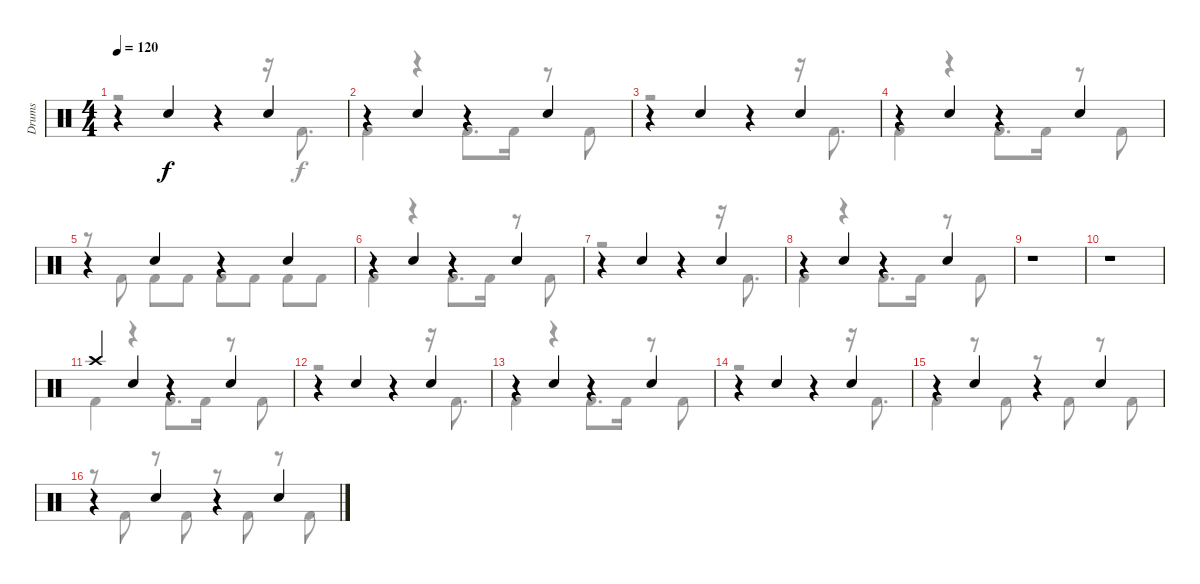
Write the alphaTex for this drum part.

\track ("Drums" "Drums") {instrument percussion}
\staff {score}
\articulation defaults
\voice
\ts (4 4)
\tempo 120
\clef neutral
\ks c
r.4{dy f} "Electric Snare (hit)".4 r.4 "Electric Snare (hit)".4 |
r.4 "Electric Snare (hit)".4 r.4 "Electric Snare (hit)".4 |
r.4 "Electric Snare (hit)".4 r.4 "Electric Snare (hit)".4 |
r.4 "Electric Snare (hit)".4 r.4 "Electric Snare (hit)".4 |
r.4 "Electric Snare (hit)".4 r.4 "Electric Snare (hit)".4 |
r.4 "Electric Snare (hit)".4 r.4 "Electric Snare (hit)".4 |
r.4 "Electric Snare (hit)".4 r.4 "Electric Snare (hit)".4 |
r.4 "Electric Snare (hit)".4 r.4 "Electric Snare (hit)".4 |
r.1 |
r.1 |
"Crash high (hit)".4 "Electric Snare (hit)".4 r.4 "Electric Snare (hit)".4 |
r.4 "Electric Snare (hit)".4 r.4 "Electric Snare (hit)".4 |
r.4 "Electric Snare (hit)".4 r.4 "Electric Snare (hit)".4 |
r.4 "Electric Snare (hit)".4 r.4 "Electric Snare (hit)".4 |
r.4 "Electric Snare (hit)".4 r.4 "Electric Snare (hit)".4 |
r.4 "Electric Snare (hit)".4 r.4 "Electric Snare (hit)".4
\voice
\clef neutral
\ottava regular
\simile none
\ks c
r.2{dy f} r.4 r.16 "Kick (hit) 2".8{d} |
"Kick (hit) 2".4 r.4 "Kick (hit) 2".8{d} "Kick (hit) 2".16 r.8 "Kick (hit) 2".8 |
r.2 r.4 r.16 "Kick (hit) 2".8{d} |
"Kick (hit) 2".4 r.4 "Kick (hit) 2".8{d} "Kick (hit) 2".16 r.8 "Kick (hit) 2".8 |
r.8 "Kick (hit) 2".8 "Kick (hit) 2".8 "Kick (hit) 2".8 "Kick (hit) 2".8 "Kick (hit) 2".8 "Kick (hit) 2".8 "Kick (hit) 2".8 |
"Kick (hit) 2".4 r.4 "Kick (hit) 2".8{d} "Kick (hit) 2".16 r.8 "Kick (hit) 2".8 |
r.2 r.4 r.16 "Kick (hit) 2".8{d} |
"Kick (hit) 2".4 r.4 "Kick (hit) 2".8{d} "Kick (hit) 2".16 r.8 "Kick (hit) 2".8 |
|
|
"Kick (hit) 2".4 r.4 "Kick (hit) 2".8{d} "Kick (hit) 2".16 r.8 "Kick (hit) 2".8 |
r.2 r.4 r.16 "Kick (hit) 2".8{d} |
"Kick (hit) 2".4 r.4 "Kick (hit) 2".8{d} "Kick (hit) 2".16 r.8 "Kick (hit) 2".8 |
r.2 r.4 r.16 "Kick (hit) 2".8{d} |
"Kick (hit) 2".4 r.8 "Kick (hit) 2".8 r.8 "Kick (hit) 2".8 r.8 "Kick (hit) 2".8 |
r.8 "Kick (hit) 2".8 r.8 "Kick (hit) 2".8 r.8 "Kick (hit) 2".8 r.8 "Kick (hit) 2".8
